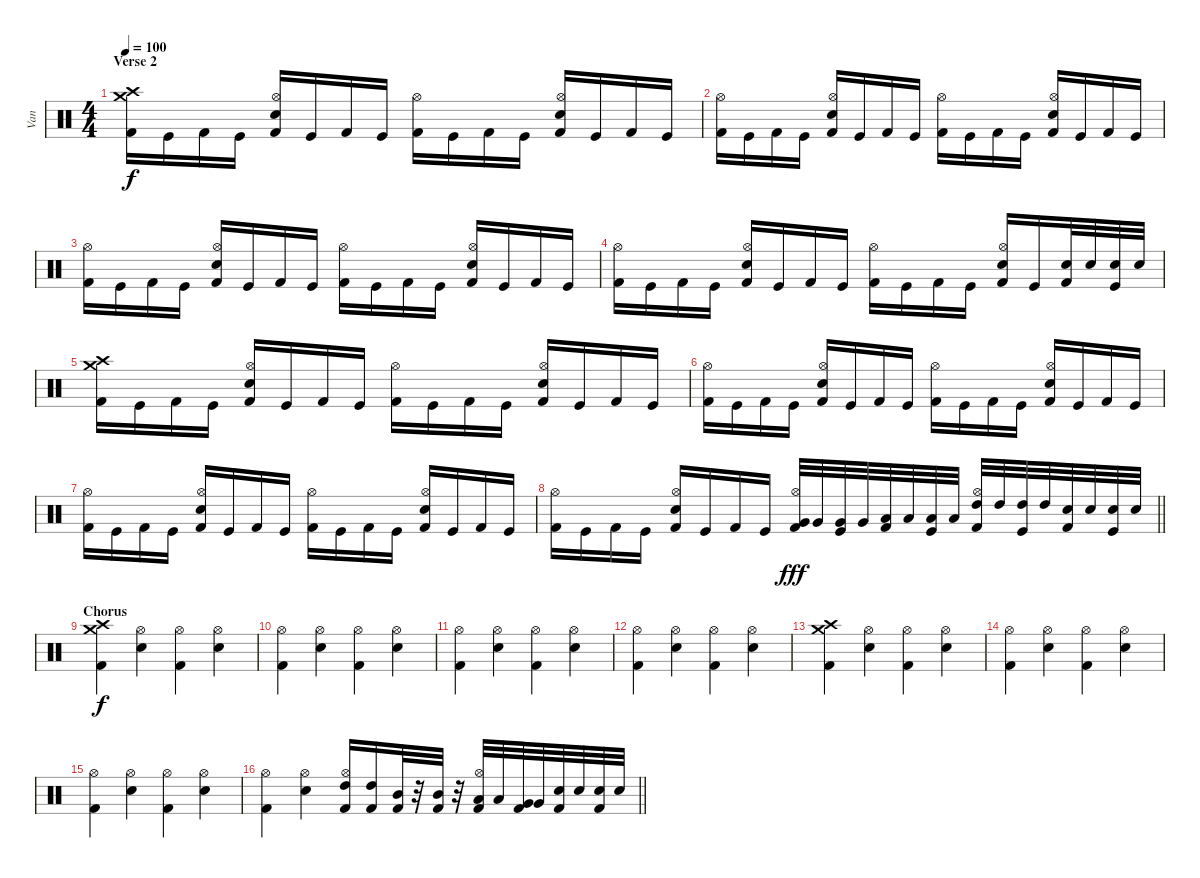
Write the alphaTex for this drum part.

\track ("Van" "Van") {instrument percussion}
\staff {score}
\articulation defaults
\ts (4 4)
\section ("" "Verse 2")
\tempo 100
\clef neutral
\ks c
("Crash high (hit)" "Crash medium (hit)" "Kick (hit) 2").16{dy f} "Kick (hit)".16 "Kick (hit) 2".16 "Kick (hit)".16 ("Hi-Hat (open)" "Electric Snare (hit)" "Kick (hit) 2").16 "Kick (hit)".16 "Kick (hit) 2".16 "Kick (hit)".16 ("Hi-Hat (open)" "Kick (hit) 2").16 "Kick (hit)".16 "Kick (hit) 2".16 "Kick (hit)".16 ("Hi-Hat (open)" "Electric Snare (hit)" "Kick (hit) 2").16 "Kick (hit)".16 "Kick (hit) 2".16 "Kick (hit)".16 |
("Hi-Hat (open)" "Kick (hit) 2").16 "Kick (hit)".16 "Kick (hit) 2".16 "Kick (hit)".16 ("Hi-Hat (open)" "Electric Snare (hit)" "Kick (hit) 2").16 "Kick (hit)".16 "Kick (hit) 2".16 "Kick (hit)".16 ("Hi-Hat (open)" "Kick (hit) 2").16 "Kick (hit)".16 "Kick (hit) 2".16 "Kick (hit)".16 ("Hi-Hat (open)" "Electric Snare (hit)" "Kick (hit) 2").16 "Kick (hit)".16 "Kick (hit) 2".16 "Kick (hit)".16 |
("Hi-Hat (open)" "Kick (hit) 2").16 "Kick (hit)".16 "Kick (hit) 2".16 "Kick (hit)".16 ("Hi-Hat (open)" "Electric Snare (hit)" "Kick (hit) 2").16 "Kick (hit)".16 "Kick (hit) 2".16 "Kick (hit)".16 ("Hi-Hat (open)" "Kick (hit) 2").16 "Kick (hit)".16 "Kick (hit) 2".16 "Kick (hit)".16 ("Hi-Hat (open)" "Electric Snare (hit)" "Kick (hit) 2").16 "Kick (hit)".16 "Kick (hit) 2".16 "Kick (hit)".16 |
("Hi-Hat (open)" "Kick (hit) 2").16 "Kick (hit)".16 "Kick (hit) 2".16 "Kick (hit)".16 ("Hi-Hat (open)" "Electric Snare (hit)" "Kick (hit) 2").16 "Kick (hit)".16 "Kick (hit) 2".16 "Kick (hit)".16 ("Hi-Hat (open)" "Kick (hit) 2").16 "Kick (hit)".16 "Kick (hit) 2".16 "Kick (hit)".16 ("Hi-Hat (open)" "Electric Snare (hit)" "Kick (hit) 2").16 "Kick (hit)".16 ("Electric Snare (hit)" "Kick (hit) 2").32 "Electric Snare (hit)".32 ("Electric Snare (hit)" "Kick (hit)").32 "Electric Snare (hit)".32 |
("Crash high (hit)" "Crash medium (hit)" "Kick (hit) 2").16 "Kick (hit)".16 "Kick (hit) 2".16 "Kick (hit)".16 ("Hi-Hat (open)" "Electric Snare (hit)" "Kick (hit) 2").16 "Kick (hit)".16 "Kick (hit) 2".16 "Kick (hit)".16 ("Hi-Hat (open)" "Kick (hit) 2").16 "Kick (hit)".16 "Kick (hit) 2".16 "Kick (hit)".16 ("Hi-Hat (open)" "Electric Snare (hit)" "Kick (hit) 2").16 "Kick (hit)".16 "Kick (hit) 2".16 "Kick (hit)".16 |
("Hi-Hat (open)" "Kick (hit) 2").16 "Kick (hit)".16 "Kick (hit) 2".16 "Kick (hit)".16 ("Hi-Hat (open)" "Electric Snare (hit)" "Kick (hit) 2").16 "Kick (hit)".16 "Kick (hit) 2".16 "Kick (hit)".16 ("Hi-Hat (open)" "Kick (hit) 2").16 "Kick (hit)".16 "Kick (hit) 2".16 "Kick (hit)".16 ("Hi-Hat (open)" "Electric Snare (hit)" "Kick (hit) 2").16 "Kick (hit)".16 "Kick (hit) 2".16 "Kick (hit)".16 |
("Hi-Hat (open)" "Kick (hit) 2").16 "Kick (hit)".16 "Kick (hit) 2".16 "Kick (hit)".16 ("Hi-Hat (open)" "Electric Snare (hit)" "Kick (hit) 2").16 "Kick (hit)".16 "Kick (hit) 2".16 "Kick (hit)".16 ("Hi-Hat (open)" "Kick (hit) 2").16 "Kick (hit)".16 "Kick (hit) 2".16 "Kick (hit)".16 ("Hi-Hat (open)" "Electric Snare (hit)" "Kick (hit) 2").16 "Kick (hit)".16 "Kick (hit) 2".16 "Kick (hit)".16 |
\barLineRight lightlight
("Hi-Hat (open)" "Kick (hit) 2").16 "Kick (hit)".16 "Kick (hit) 2".16 "Kick (hit)".16 ("Hi-Hat (open)" "Electric Snare (hit)" "Kick (hit) 2").16 "Kick (hit)".16 "Kick (hit) 2".16 "Kick (hit)".16 ("Hi-Hat (open)" "Very Low Tom (hit)" "Kick (hit) 2").32{dy fff} "Very Low Tom (hit)".32 ("Very Low Tom (hit)" "Kick (hit)").32 "Very Low Tom (hit)".32 ("Low Tom (hit)" "Kick (hit) 2").32 "Low Tom (hit)".32 ("Low Tom (hit)" "Kick (hit)").32 "Low Tom (hit)".32 ("Hi-Hat (open)" "High Tom (hit)" "Kick (hit) 2").32 "High Tom (hit)".32 ("High Tom (hit)" "Kick (hit)").32 "High Tom (hit)".32 ("Electric Snare (hit)" "Kick (hit) 2").32 "Electric Snare (hit)".32 ("Electric Snare (hit)" "Kick (hit)").32 "Electric Snare (hit)".32 |
\section ("" "Chorus")
("Crash medium (hit)" "Crash high (hit)" "Kick (hit) 2").4{dy f} ("Hi-Hat (open)" "Electric Snare (hit)").4 ("Hi-Hat (open)" "Kick (hit) 2").4 ("Hi-Hat (open)" "Electric Snare (hit)").4 |
("Hi-Hat (open)" "Kick (hit) 2").4 ("Hi-Hat (open)" "Electric Snare (hit)").4 ("Hi-Hat (open)" "Kick (hit) 2").4 ("Hi-Hat (open)" "Electric Snare (hit)").4 |
("Hi-Hat (open)" "Kick (hit) 2").4 ("Hi-Hat (open)" "Electric Snare (hit)").4 ("Hi-Hat (open)" "Kick (hit) 2").4 ("Hi-Hat (open)" "Electric Snare (hit)").4 |
("Hi-Hat (open)" "Kick (hit) 2").4 ("Hi-Hat (open)" "Electric Snare (hit)").4 ("Hi-Hat (open)" "Kick (hit) 2").4 ("Hi-Hat (open)" "Electric Snare (hit)").4 |
("Crash medium (hit)" "Crash high (hit)" "Kick (hit) 2").4 ("Hi-Hat (open)" "Electric Snare (hit)").4 ("Hi-Hat (open)" "Kick (hit) 2").4 ("Hi-Hat (open)" "Electric Snare (hit)").4 |
("Hi-Hat (open)" "Kick (hit) 2").4 ("Hi-Hat (open)" "Electric Snare (hit)").4 ("Hi-Hat (open)" "Kick (hit) 2").4 ("Hi-Hat (open)" "Electric Snare (hit)").4 |
("Hi-Hat (open)" "Kick (hit) 2").4 ("Hi-Hat (open)" "Electric Snare (hit)").4 ("Hi-Hat (open)" "Kick (hit) 2").4 ("Hi-Hat (open)" "Electric Snare (hit)").4 |
\barLineRight lightlight
("Hi-Hat (open)" "Kick (hit) 2").4 ("Hi-Hat (open)" "Electric Snare (hit)").4 ("Hi-Hat (open)" "High Tom (hit)" "Kick (hit) 2").16 ("High Tom (hit)" "Kick (hit) 2").16 ("Mid Tom (hit)" "Kick (hit) 2").32 r.32 ("Mid Tom (hit)" "Kick (hit) 2").32 r.32 ("Hi-Hat (open)" "Low Tom (hit)" "Kick (hit) 2").32 "Low Tom (hit)".32 ("Very Low Tom (hit)" "Kick (hit) 2").32 "Very Low Tom (hit)".32 ("Electric Snare (hit)" "Kick (hit) 2").32 "Electric Snare (hit)".32 ("Electric Snare (hit)" "Kick (hit) 2").32 "Electric Snare (hit)".32
